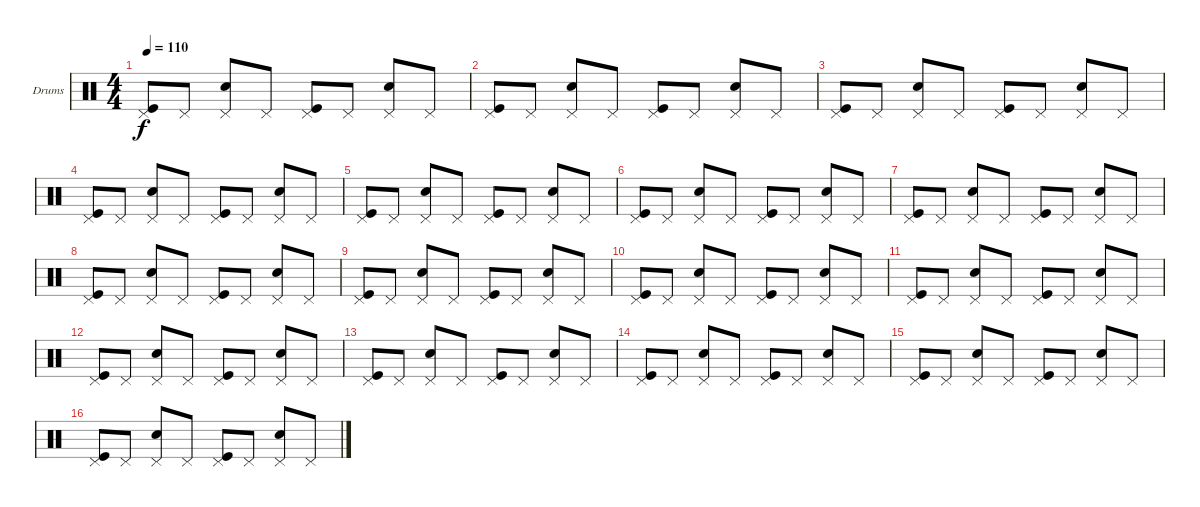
\defaultSystemsLayout 4
\bracketExtendMode groupsimilarinstruments
\firstSystemTrackNameOrientation horizontal
\otherSystemsTrackNameOrientation horizontal
\track ("Drumkit" "Drums") {instrument percussion}
\staff {score}
\articulation defaults
\ts (4 4)
\tempo 110
\clef neutral
\ks c
("Pedal Hi-Hat (hit)" "Kick (hit)").8{dy f} "Pedal Hi-Hat (hit)".8 ("Snare (hit) 2" "Pedal Hi-Hat (hit)").8 "Pedal Hi-Hat (hit)".8 ("Pedal Hi-Hat (hit)" "Kick (hit)").8 "Pedal Hi-Hat (hit)".8 ("Snare (hit) 2" "Pedal Hi-Hat (hit)").8 "Pedal Hi-Hat (hit)".8 |
("Pedal Hi-Hat (hit)" "Kick (hit)").8 "Pedal Hi-Hat (hit)".8 ("Snare (hit) 2" "Pedal Hi-Hat (hit)").8 "Pedal Hi-Hat (hit)".8 ("Pedal Hi-Hat (hit)" "Kick (hit)").8 "Pedal Hi-Hat (hit)".8 ("Snare (hit) 2" "Pedal Hi-Hat (hit)").8 "Pedal Hi-Hat (hit)".8 |
("Pedal Hi-Hat (hit)" "Kick (hit)").8 "Pedal Hi-Hat (hit)".8 ("Snare (hit) 2" "Pedal Hi-Hat (hit)").8 "Pedal Hi-Hat (hit)".8 ("Pedal Hi-Hat (hit)" "Kick (hit)").8 "Pedal Hi-Hat (hit)".8 ("Snare (hit) 2" "Pedal Hi-Hat (hit)").8 "Pedal Hi-Hat (hit)".8 |
("Pedal Hi-Hat (hit)" "Kick (hit)").8 "Pedal Hi-Hat (hit)".8 ("Snare (hit) 2" "Pedal Hi-Hat (hit)").8 "Pedal Hi-Hat (hit)".8 ("Pedal Hi-Hat (hit)" "Kick (hit)").8 "Pedal Hi-Hat (hit)".8 ("Snare (hit) 2" "Pedal Hi-Hat (hit)").8 "Pedal Hi-Hat (hit)".8 |
("Pedal Hi-Hat (hit)" "Kick (hit)").8 "Pedal Hi-Hat (hit)".8 ("Snare (hit) 2" "Pedal Hi-Hat (hit)").8 "Pedal Hi-Hat (hit)".8 ("Pedal Hi-Hat (hit)" "Kick (hit)").8 "Pedal Hi-Hat (hit)".8 ("Snare (hit) 2" "Pedal Hi-Hat (hit)").8 "Pedal Hi-Hat (hit)".8 |
("Pedal Hi-Hat (hit)" "Kick (hit)").8 "Pedal Hi-Hat (hit)".8 ("Snare (hit) 2" "Pedal Hi-Hat (hit)").8 "Pedal Hi-Hat (hit)".8 ("Pedal Hi-Hat (hit)" "Kick (hit)").8 "Pedal Hi-Hat (hit)".8 ("Snare (hit) 2" "Pedal Hi-Hat (hit)").8 "Pedal Hi-Hat (hit)".8 |
("Pedal Hi-Hat (hit)" "Kick (hit)").8 "Pedal Hi-Hat (hit)".8 ("Snare (hit) 2" "Pedal Hi-Hat (hit)").8 "Pedal Hi-Hat (hit)".8 ("Pedal Hi-Hat (hit)" "Kick (hit)").8 "Pedal Hi-Hat (hit)".8 ("Snare (hit) 2" "Pedal Hi-Hat (hit)").8 "Pedal Hi-Hat (hit)".8 |
("Pedal Hi-Hat (hit)" "Kick (hit)").8 "Pedal Hi-Hat (hit)".8 ("Snare (hit) 2" "Pedal Hi-Hat (hit)").8 "Pedal Hi-Hat (hit)".8 ("Pedal Hi-Hat (hit)" "Kick (hit)").8 "Pedal Hi-Hat (hit)".8 ("Snare (hit) 2" "Pedal Hi-Hat (hit)").8 "Pedal Hi-Hat (hit)".8 |
("Pedal Hi-Hat (hit)" "Kick (hit)").8 "Pedal Hi-Hat (hit)".8 ("Snare (hit) 2" "Pedal Hi-Hat (hit)").8 "Pedal Hi-Hat (hit)".8 ("Pedal Hi-Hat (hit)" "Kick (hit)").8 "Pedal Hi-Hat (hit)".8 ("Snare (hit) 2" "Pedal Hi-Hat (hit)").8 "Pedal Hi-Hat (hit)".8 |
("Pedal Hi-Hat (hit)" "Kick (hit)").8 "Pedal Hi-Hat (hit)".8 ("Snare (hit) 2" "Pedal Hi-Hat (hit)").8 "Pedal Hi-Hat (hit)".8 ("Pedal Hi-Hat (hit)" "Kick (hit)").8 "Pedal Hi-Hat (hit)".8 ("Snare (hit) 2" "Pedal Hi-Hat (hit)").8 "Pedal Hi-Hat (hit)".8 |
("Pedal Hi-Hat (hit)" "Kick (hit)").8 "Pedal Hi-Hat (hit)".8 ("Snare (hit) 2" "Pedal Hi-Hat (hit)").8 "Pedal Hi-Hat (hit)".8 ("Pedal Hi-Hat (hit)" "Kick (hit)").8 "Pedal Hi-Hat (hit)".8 ("Snare (hit) 2" "Pedal Hi-Hat (hit)").8 "Pedal Hi-Hat (hit)".8 |
("Pedal Hi-Hat (hit)" "Kick (hit)").8 "Pedal Hi-Hat (hit)".8 ("Snare (hit) 2" "Pedal Hi-Hat (hit)").8 "Pedal Hi-Hat (hit)".8 ("Pedal Hi-Hat (hit)" "Kick (hit)").8 "Pedal Hi-Hat (hit)".8 ("Snare (hit) 2" "Pedal Hi-Hat (hit)").8 "Pedal Hi-Hat (hit)".8 |
("Pedal Hi-Hat (hit)" "Kick (hit)").8 "Pedal Hi-Hat (hit)".8 ("Snare (hit) 2" "Pedal Hi-Hat (hit)").8 "Pedal Hi-Hat (hit)".8 ("Pedal Hi-Hat (hit)" "Kick (hit)").8 "Pedal Hi-Hat (hit)".8 ("Snare (hit) 2" "Pedal Hi-Hat (hit)").8 "Pedal Hi-Hat (hit)".8 |
("Pedal Hi-Hat (hit)" "Kick (hit)").8 "Pedal Hi-Hat (hit)".8 ("Snare (hit) 2" "Pedal Hi-Hat (hit)").8 "Pedal Hi-Hat (hit)".8 ("Pedal Hi-Hat (hit)" "Kick (hit)").8 "Pedal Hi-Hat (hit)".8 ("Snare (hit) 2" "Pedal Hi-Hat (hit)").8 "Pedal Hi-Hat (hit)".8 |
("Pedal Hi-Hat (hit)" "Kick (hit)").8 "Pedal Hi-Hat (hit)".8 ("Snare (hit) 2" "Pedal Hi-Hat (hit)").8 "Pedal Hi-Hat (hit)".8 ("Pedal Hi-Hat (hit)" "Kick (hit)").8 "Pedal Hi-Hat (hit)".8 ("Snare (hit) 2" "Pedal Hi-Hat (hit)").8 "Pedal Hi-Hat (hit)".8 |
("Pedal Hi-Hat (hit)" "Kick (hit)").8 "Pedal Hi-Hat (hit)".8 ("Snare (hit) 2" "Pedal Hi-Hat (hit)").8 "Pedal Hi-Hat (hit)".8 ("Pedal Hi-Hat (hit)" "Kick (hit)").8 "Pedal Hi-Hat (hit)".8 ("Snare (hit) 2" "Pedal Hi-Hat (hit)").8 "Pedal Hi-Hat (hit)".8
